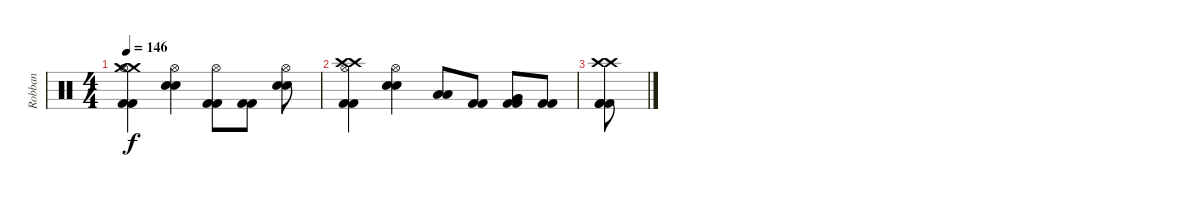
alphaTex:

\track ("Robban" "Robban") {instrument percussion}
\staff {score}
\articulation defaults
\ts (4 4)
\tempo 146
\clef neutral
\ks c
("Crash medium (hit)" "Crash medium (hit)" "Hi-Hat (open)" "Kick (hit) 2" "Kick (hit) 2").4{dy f} ("Hi-Hat (open)" "Electric Snare (hit)" "Electric Snare (hit)").4 ("Hi-Hat (open)" "Kick (hit) 2" "Kick (hit) 2").8 ("Kick (hit) 2" "Kick (hit) 2").8 ("Hi-Hat (open)" "Electric Snare (hit)" "Electric Snare (hit)").8 |
("Crash high (hit)" "Crash high (hit)" "Hi-Hat (open)" "Kick (hit) 2" "Kick (hit) 2").4 ("Hi-Hat (open)" "Electric Snare (hit)" "Electric Snare (hit)").4 ("Low Tom (hit)" "Low Tom (hit)").8 ("Kick (hit) 2" "Kick (hit) 2").8 ("Very Low Tom (hit)" "Very Low Tom (hit)" "Kick (hit) 2" "Kick (hit) 2").8 ("Kick (hit) 2" "Kick (hit) 2").8 |
("Crash high (hit)" "Crash high (hit)" "Kick (hit) 2" "Kick (hit) 2" "Kick (hit) 2").8
